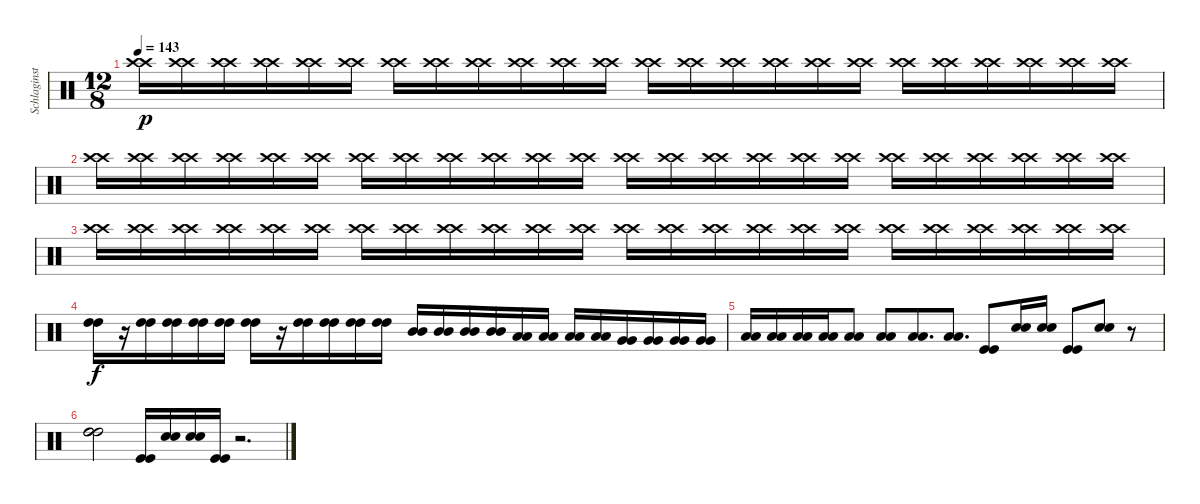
\track ("Schlaginstrumente - Auswahl" "Schlaginst") {instrument percussion}
\staff {score}
\articulation defaults
\ts (12 8)
\tempo 143
\clef neutral
\ks c
("Crash high (hit)" "Crash high (hit)").16{dy p} ("Crash high (hit)" "Crash high (hit)").16 ("Crash high (hit)" "Crash high (hit)").16 ("Crash high (hit)" "Crash high (hit)").16 ("Crash high (hit)" "Crash high (hit)").16 ("Crash high (hit)" "Crash high (hit)").16 ("Crash high (hit)" "Crash high (hit)").16 ("Crash high (hit)" "Crash high (hit)").16 ("Crash high (hit)" "Crash high (hit)").16 ("Crash high (hit)" "Crash high (hit)").16 ("Crash high (hit)" "Crash high (hit)").16 ("Crash high (hit)" "Crash high (hit)").16 ("Crash high (hit)" "Crash high (hit)").16 ("Crash high (hit)" "Crash high (hit)").16 ("Crash high (hit)" "Crash high (hit)").16 ("Crash high (hit)" "Crash high (hit)").16 ("Crash high (hit)" "Crash high (hit)").16 ("Crash high (hit)" "Crash high (hit)").16 ("Crash high (hit)" "Crash high (hit)").16 ("Crash high (hit)" "Crash high (hit)").16 ("Crash high (hit)" "Crash high (hit)").16 ("Crash high (hit)" "Crash high (hit)").16 ("Crash high (hit)" "Crash high (hit)").16 ("Crash high (hit)" "Crash high (hit)").16 |
("Crash high (hit)" "Crash high (hit)").16 ("Crash high (hit)" "Crash high (hit)").16 ("Crash high (hit)" "Crash high (hit)").16 ("Crash high (hit)" "Crash high (hit)").16 ("Crash high (hit)" "Crash high (hit)").16 ("Crash high (hit)" "Crash high (hit)").16 ("Crash high (hit)" "Crash high (hit)").16 ("Crash high (hit)" "Crash high (hit)").16 ("Crash high (hit)" "Crash high (hit)").16 ("Crash high (hit)" "Crash high (hit)").16 ("Crash high (hit)" "Crash high (hit)").16 ("Crash high (hit)" "Crash high (hit)").16 ("Crash high (hit)" "Crash high (hit)").16 ("Crash high (hit)" "Crash high (hit)").16 ("Crash high (hit)" "Crash high (hit)").16 ("Crash high (hit)" "Crash high (hit)").16 ("Crash high (hit)" "Crash high (hit)").16 ("Crash high (hit)" "Crash high (hit)").16 ("Crash high (hit)" "Crash high (hit)").16 ("Crash high (hit)" "Crash high (hit)").16 ("Crash high (hit)" "Crash high (hit)").16 ("Crash high (hit)" "Crash high (hit)").16 ("Crash high (hit)" "Crash high (hit)").16 ("Crash high (hit)" "Crash high (hit)").16 |
("Crash high (hit)" "Crash high (hit)").16 ("Crash high (hit)" "Crash high (hit)").16 ("Crash high (hit)" "Crash high (hit)").16 ("Crash high (hit)" "Crash high (hit)").16 ("Crash high (hit)" "Crash high (hit)").16 ("Crash high (hit)" "Crash high (hit)").16 ("Crash high (hit)" "Crash high (hit)").16 ("Crash high (hit)" "Crash high (hit)").16 ("Crash high (hit)" "Crash high (hit)").16 ("Crash high (hit)" "Crash high (hit)").16 ("Crash high (hit)" "Crash high (hit)").16 ("Crash high (hit)" "Crash high (hit)").16 ("Crash high (hit)" "Crash high (hit)").16 ("Crash high (hit)" "Crash high (hit)").16 ("Crash high (hit)" "Crash high (hit)").16 ("Crash high (hit)" "Crash high (hit)").16 ("Crash high (hit)" "Crash high (hit)").16 ("Crash high (hit)" "Crash high (hit)").16 ("Crash high (hit)" "Crash high (hit)").16 ("Crash high (hit)" "Crash high (hit)").16 ("Crash high (hit)" "Crash high (hit)").16 ("Crash high (hit)" "Crash high (hit)").16 ("Crash high (hit)" "Crash high (hit)").16 ("Crash high (hit)" "Crash high (hit)").16 |
("High Tom (hit)" "High Tom (hit)").16{dy f} r.16 ("High Tom (hit)" "High Tom (hit)").16 ("High Tom (hit)" "High Tom (hit)").16 ("High Tom (hit)" "High Tom (hit)").16 ("High Tom (hit)" "High Tom (hit)").16 ("High Tom (hit)" "High Tom (hit)").16 r.16 ("High Tom (hit)" "High Tom (hit)").16 ("High Tom (hit)" "High Tom (hit)").16 ("High Tom (hit)" "High Tom (hit)").16 ("High Tom (hit)" "High Tom (hit)").16 ("Mid Tom (hit)" "Mid Tom (hit)").16 ("Mid Tom (hit)" "Mid Tom (hit)").16 ("Mid Tom (hit)" "Mid Tom (hit)").16 ("Mid Tom (hit)" "Mid Tom (hit)").16 ("Low Tom (hit)" "Low Tom (hit)").16 ("Low Tom (hit)" "Low Tom (hit)").16 ("Low Tom (hit)" "Low Tom (hit)").16 ("Low Tom (hit)" "Low Tom (hit)").16 ("Very Low Tom (hit)" "Very Low Tom (hit)").16 ("Very Low Tom (hit)" "Very Low Tom (hit)").16 ("Very Low Tom (hit)" "Very Low Tom (hit)").16 ("Very Low Tom (hit)" "Very Low Tom (hit)").16 |
("Low Floor Tom (hit)" "Low Floor Tom (hit)").16 ("Low Floor Tom (hit)" "Low Floor Tom (hit)").16 ("Low Floor Tom (hit)" "Low Floor Tom (hit)").16 ("Low Floor Tom (hit)" "Low Floor Tom (hit)").16 ("Low Floor Tom (hit)" "Low Floor Tom (hit)").8 ("Low Floor Tom (hit)" "Low Floor Tom (hit)").8 ("Low Floor Tom (hit)" "Low Floor Tom (hit)").8{d} ("Low Floor Tom (hit)" "Low Floor Tom (hit)").8{d} ("Kick (hit)" "Kick (hit)").8 ("Snare (hit) 2" "Snare (hit) 2").16 ("Snare (hit) 2" "Snare (hit) 2").16 ("Kick (hit)" "Kick (hit)").8 ("Snare (hit) 2" "Snare (hit) 2").8 r.8 |
("High Tom (hit)" "High Tom (hit)" "High Tom (hit)").2 ("Kick (hit)" "Kick (hit)").16 ("Snare (hit) 2" "Snare (hit) 2").16 ("Snare (hit) 2" "Snare (hit) 2").16 ("Kick (hit)" "Kick (hit)").16 r.2{d}
